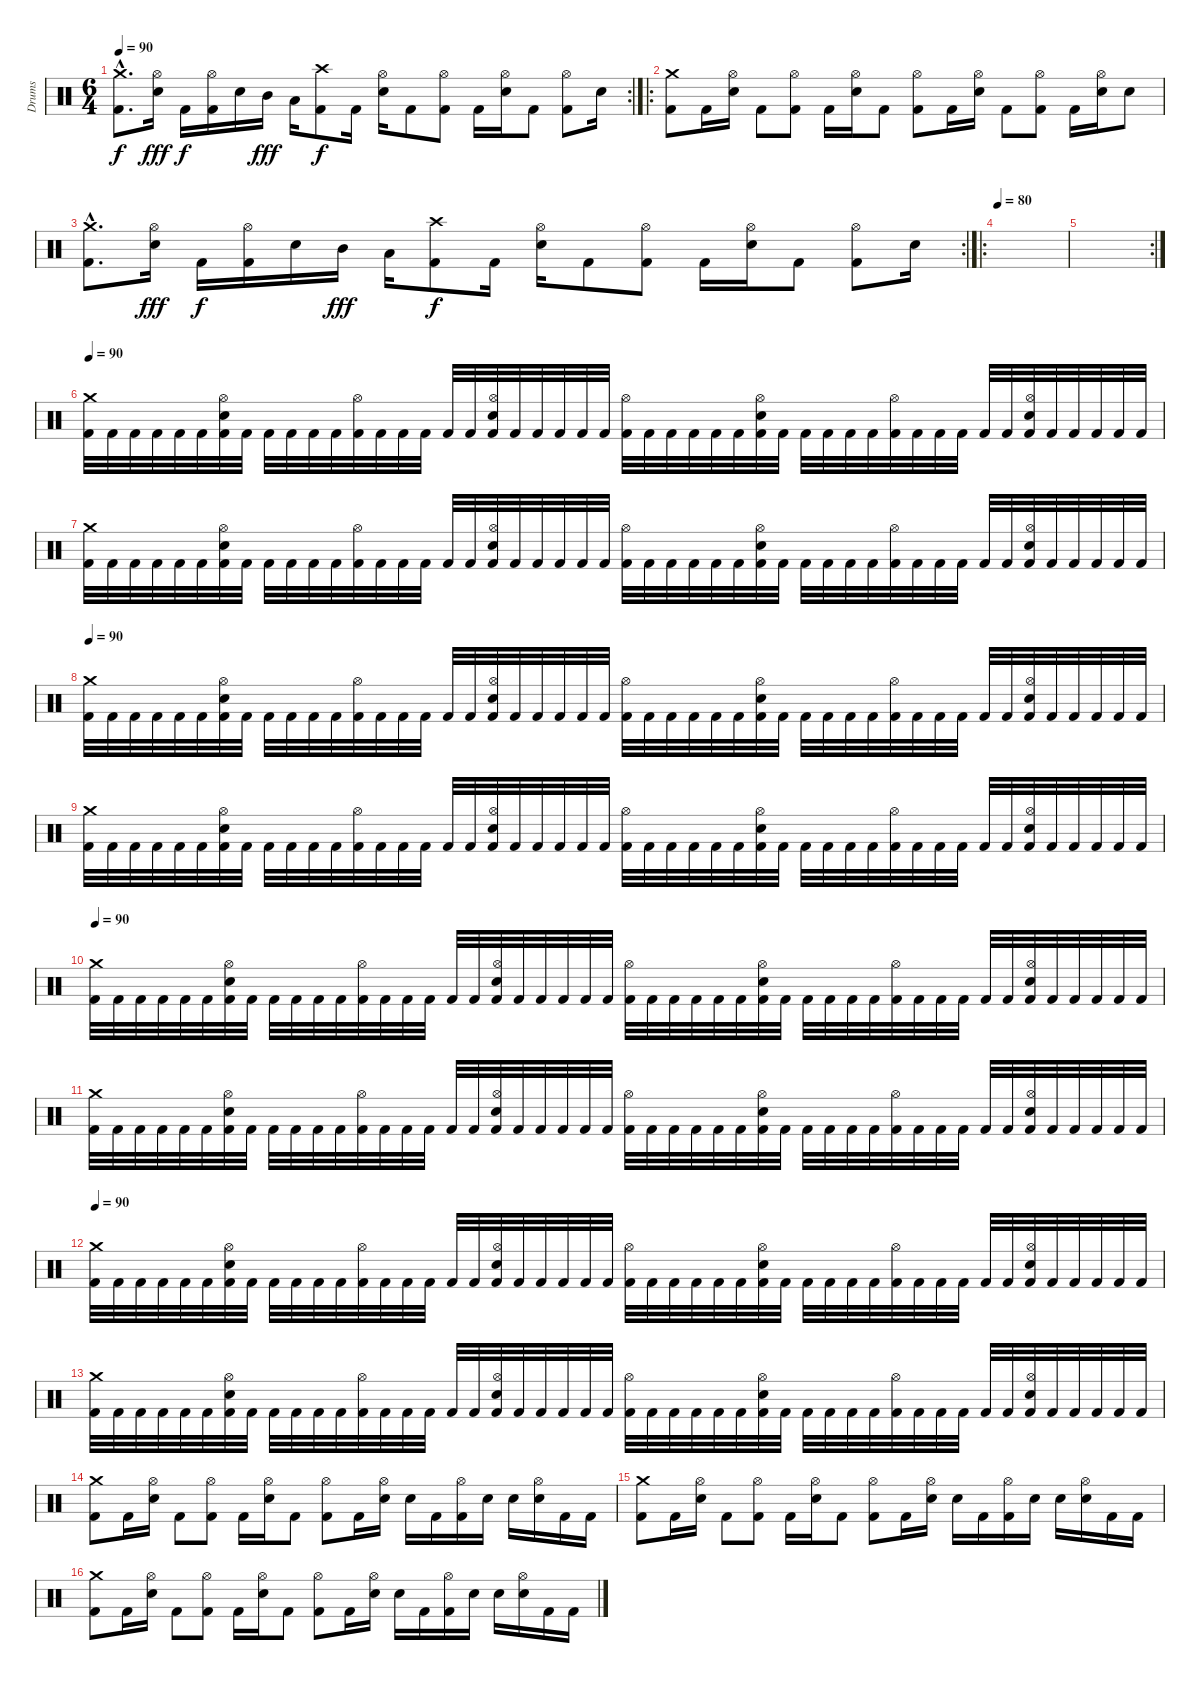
\track ("Drums" "Drums") {instrument percussion}
\staff {score}
\articulation defaults
\rc 2
\ts (6 4)
\tempo 90
\clef neutral
\ks c
("Crash medium (hit)"{hac} "Kick (hit) 2"{hac}).8{d dy f} ("Hi-Hat (open)" "Electric Snare (hit)").16{dy fff} "Kick (hit) 2".16{dy f} ("Hi-Hat (open)" "Kick (hit) 2").16 "Electric Snare (hit)".16 "Mid Tom (hit)".16{dy fff} "Low Tom (hit)".16 ("Crash high (hit)" "Kick (hit) 2").8{dy f} "Kick (hit) 2".16 ("Hi-Hat (open)" "Electric Snare (hit)").16 "Kick (hit) 2".8 ("Hi-Hat (open)" "Kick (hit) 2").8 "Kick (hit) 2".16 ("Hi-Hat (open)" "Electric Snare (hit)").16 "Kick (hit) 2".8 ("Hi-Hat (open)" "Kick (hit) 2").8 "Electric Snare (hit)".16 |
\ro
("Crash medium (hit)" "Kick (hit) 2").8 "Kick (hit) 2".16 ("Hi-Hat (open)" "Electric Snare (hit)").16 "Kick (hit) 2".8 ("Hi-Hat (open)" "Kick (hit) 2").8 "Kick (hit) 2".16 ("Hi-Hat (open)" "Electric Snare (hit)").16 "Kick (hit) 2".8 ("Hi-Hat (open)" "Kick (hit) 2").8 "Kick (hit) 2".16 ("Hi-Hat (open)" "Electric Snare (hit)").16 "Kick (hit) 2".8 ("Hi-Hat (open)" "Kick (hit) 2").8 "Kick (hit) 2".16 ("Hi-Hat (open)" "Electric Snare (hit)").16 "Electric Snare (hit)".8 |
\rc 2
("Crash medium (hit)"{hac} "Kick (hit) 2"{hac}).8{d} ("Hi-Hat (open)" "Electric Snare (hit)").16{dy fff} "Kick (hit) 2".16{dy f} ("Hi-Hat (open)" "Kick (hit) 2").16 "Electric Snare (hit)".16 "Mid Tom (hit)".16{dy fff} "Low Tom (hit)".16 ("Crash high (hit)" "Kick (hit) 2").8{dy f} "Kick (hit) 2".16 ("Hi-Hat (open)" "Electric Snare (hit)").16 "Kick (hit) 2".8 ("Hi-Hat (open)" "Kick (hit) 2").8 "Kick (hit) 2".16 ("Hi-Hat (open)" "Electric Snare (hit)").16 "Kick (hit) 2".8 ("Hi-Hat (open)" "Kick (hit) 2").8 "Electric Snare (hit)".16 |
\ro
\tempo 80
|
\rc 2
|
\tempo 90
("Crash medium (hit)" "Kick (hit) 2").32 "Kick (hit) 2".32 "Kick (hit) 2".32 "Kick (hit) 2".32 "Kick (hit) 2".32 "Kick (hit) 2".32 ("Hi-Hat (open)" "Electric Snare (hit)" "Kick (hit) 2").32 "Kick (hit) 2".32 "Kick (hit) 2".32 "Kick (hit) 2".32 "Kick (hit) 2".32 "Kick (hit) 2".32 ("Hi-Hat (open)" "Kick (hit) 2").32 "Kick (hit) 2".32 "Kick (hit) 2".32 "Kick (hit) 2".32 "Kick (hit) 2".32 "Kick (hit) 2".32 ("Hi-Hat (open)" "Electric Snare (hit)" "Kick (hit) 2").32 "Kick (hit) 2".32 "Kick (hit) 2".32 "Kick (hit) 2".32 "Kick (hit) 2".32 "Kick (hit) 2".32 ("Hi-Hat (open)" "Kick (hit) 2").32 "Kick (hit) 2".32 "Kick (hit) 2".32 "Kick (hit) 2".32 "Kick (hit) 2".32 "Kick (hit) 2".32 ("Hi-Hat (open)" "Electric Snare (hit)" "Kick (hit) 2").32 "Kick (hit) 2".32 "Kick (hit) 2".32 "Kick (hit) 2".32 "Kick (hit) 2".32 "Kick (hit) 2".32 ("Hi-Hat (open)" "Kick (hit) 2").32 "Kick (hit) 2".32 "Kick (hit) 2".32 "Kick (hit) 2".32 "Kick (hit) 2".32 "Kick (hit) 2".32 ("Hi-Hat (open)" "Electric Snare (hit)" "Kick (hit) 2").32 "Kick (hit) 2".32 "Kick (hit) 2".32 "Kick (hit) 2".32 "Kick (hit) 2".32 "Kick (hit) 2".32 |
("Crash medium (hit)" "Kick (hit) 2").32 "Kick (hit) 2".32 "Kick (hit) 2".32 "Kick (hit) 2".32 "Kick (hit) 2".32 "Kick (hit) 2".32 ("Hi-Hat (open)" "Electric Snare (hit)" "Kick (hit) 2").32 "Kick (hit) 2".32 "Kick (hit) 2".32 "Kick (hit) 2".32 "Kick (hit) 2".32 "Kick (hit) 2".32 ("Hi-Hat (open)" "Kick (hit) 2").32 "Kick (hit) 2".32 "Kick (hit) 2".32 "Kick (hit) 2".32 "Kick (hit) 2".32 "Kick (hit) 2".32 ("Hi-Hat (open)" "Electric Snare (hit)" "Kick (hit) 2").32 "Kick (hit) 2".32 "Kick (hit) 2".32 "Kick (hit) 2".32 "Kick (hit) 2".32 "Kick (hit) 2".32 ("Hi-Hat (open)" "Kick (hit) 2").32 "Kick (hit) 2".32 "Kick (hit) 2".32 "Kick (hit) 2".32 "Kick (hit) 2".32 "Kick (hit) 2".32 ("Hi-Hat (open)" "Electric Snare (hit)" "Kick (hit) 2").32 "Kick (hit) 2".32 "Kick (hit) 2".32 "Kick (hit) 2".32 "Kick (hit) 2".32 "Kick (hit) 2".32 ("Hi-Hat (open)" "Kick (hit) 2").32 "Kick (hit) 2".32 "Kick (hit) 2".32 "Kick (hit) 2".32 "Kick (hit) 2".32 "Kick (hit) 2".32 ("Hi-Hat (open)" "Electric Snare (hit)" "Kick (hit) 2").32 "Kick (hit) 2".32 "Kick (hit) 2".32 "Kick (hit) 2".32 "Kick (hit) 2".32 "Kick (hit) 2".32 |
\tempo 90
("Crash medium (hit)" "Kick (hit) 2").32 "Kick (hit) 2".32 "Kick (hit) 2".32 "Kick (hit) 2".32 "Kick (hit) 2".32 "Kick (hit) 2".32 ("Hi-Hat (open)" "Electric Snare (hit)" "Kick (hit) 2").32 "Kick (hit) 2".32 "Kick (hit) 2".32 "Kick (hit) 2".32 "Kick (hit) 2".32 "Kick (hit) 2".32 ("Hi-Hat (open)" "Kick (hit) 2").32 "Kick (hit) 2".32 "Kick (hit) 2".32 "Kick (hit) 2".32 "Kick (hit) 2".32 "Kick (hit) 2".32 ("Hi-Hat (open)" "Electric Snare (hit)" "Kick (hit) 2").32 "Kick (hit) 2".32 "Kick (hit) 2".32 "Kick (hit) 2".32 "Kick (hit) 2".32 "Kick (hit) 2".32 ("Hi-Hat (open)" "Kick (hit) 2").32 "Kick (hit) 2".32 "Kick (hit) 2".32 "Kick (hit) 2".32 "Kick (hit) 2".32 "Kick (hit) 2".32 ("Hi-Hat (open)" "Electric Snare (hit)" "Kick (hit) 2").32 "Kick (hit) 2".32 "Kick (hit) 2".32 "Kick (hit) 2".32 "Kick (hit) 2".32 "Kick (hit) 2".32 ("Hi-Hat (open)" "Kick (hit) 2").32 "Kick (hit) 2".32 "Kick (hit) 2".32 "Kick (hit) 2".32 "Kick (hit) 2".32 "Kick (hit) 2".32 ("Hi-Hat (open)" "Electric Snare (hit)" "Kick (hit) 2").32 "Kick (hit) 2".32 "Kick (hit) 2".32 "Kick (hit) 2".32 "Kick (hit) 2".32 "Kick (hit) 2".32 |
("Crash medium (hit)" "Kick (hit) 2").32 "Kick (hit) 2".32 "Kick (hit) 2".32 "Kick (hit) 2".32 "Kick (hit) 2".32 "Kick (hit) 2".32 ("Hi-Hat (open)" "Electric Snare (hit)" "Kick (hit) 2").32 "Kick (hit) 2".32 "Kick (hit) 2".32 "Kick (hit) 2".32 "Kick (hit) 2".32 "Kick (hit) 2".32 ("Hi-Hat (open)" "Kick (hit) 2").32 "Kick (hit) 2".32 "Kick (hit) 2".32 "Kick (hit) 2".32 "Kick (hit) 2".32 "Kick (hit) 2".32 ("Hi-Hat (open)" "Electric Snare (hit)" "Kick (hit) 2").32 "Kick (hit) 2".32 "Kick (hit) 2".32 "Kick (hit) 2".32 "Kick (hit) 2".32 "Kick (hit) 2".32 ("Hi-Hat (open)" "Kick (hit) 2").32 "Kick (hit) 2".32 "Kick (hit) 2".32 "Kick (hit) 2".32 "Kick (hit) 2".32 "Kick (hit) 2".32 ("Hi-Hat (open)" "Electric Snare (hit)" "Kick (hit) 2").32 "Kick (hit) 2".32 "Kick (hit) 2".32 "Kick (hit) 2".32 "Kick (hit) 2".32 "Kick (hit) 2".32 ("Hi-Hat (open)" "Kick (hit) 2").32 "Kick (hit) 2".32 "Kick (hit) 2".32 "Kick (hit) 2".32 "Kick (hit) 2".32 "Kick (hit) 2".32 ("Hi-Hat (open)" "Electric Snare (hit)" "Kick (hit) 2").32 "Kick (hit) 2".32 "Kick (hit) 2".32 "Kick (hit) 2".32 "Kick (hit) 2".32 "Kick (hit) 2".32 |
\tempo 90
("Crash medium (hit)" "Kick (hit) 2").32 "Kick (hit) 2".32 "Kick (hit) 2".32 "Kick (hit) 2".32 "Kick (hit) 2".32 "Kick (hit) 2".32 ("Hi-Hat (open)" "Electric Snare (hit)" "Kick (hit) 2").32 "Kick (hit) 2".32 "Kick (hit) 2".32 "Kick (hit) 2".32 "Kick (hit) 2".32 "Kick (hit) 2".32 ("Hi-Hat (open)" "Kick (hit) 2").32 "Kick (hit) 2".32 "Kick (hit) 2".32 "Kick (hit) 2".32 "Kick (hit) 2".32 "Kick (hit) 2".32 ("Hi-Hat (open)" "Electric Snare (hit)" "Kick (hit) 2").32 "Kick (hit) 2".32 "Kick (hit) 2".32 "Kick (hit) 2".32 "Kick (hit) 2".32 "Kick (hit) 2".32 ("Hi-Hat (open)" "Kick (hit) 2").32 "Kick (hit) 2".32 "Kick (hit) 2".32 "Kick (hit) 2".32 "Kick (hit) 2".32 "Kick (hit) 2".32 ("Hi-Hat (open)" "Electric Snare (hit)" "Kick (hit) 2").32 "Kick (hit) 2".32 "Kick (hit) 2".32 "Kick (hit) 2".32 "Kick (hit) 2".32 "Kick (hit) 2".32 ("Hi-Hat (open)" "Kick (hit) 2").32 "Kick (hit) 2".32 "Kick (hit) 2".32 "Kick (hit) 2".32 "Kick (hit) 2".32 "Kick (hit) 2".32 ("Hi-Hat (open)" "Electric Snare (hit)" "Kick (hit) 2").32 "Kick (hit) 2".32 "Kick (hit) 2".32 "Kick (hit) 2".32 "Kick (hit) 2".32 "Kick (hit) 2".32 |
("Crash medium (hit)" "Kick (hit) 2").32 "Kick (hit) 2".32 "Kick (hit) 2".32 "Kick (hit) 2".32 "Kick (hit) 2".32 "Kick (hit) 2".32 ("Hi-Hat (open)" "Electric Snare (hit)" "Kick (hit) 2").32 "Kick (hit) 2".32 "Kick (hit) 2".32 "Kick (hit) 2".32 "Kick (hit) 2".32 "Kick (hit) 2".32 ("Hi-Hat (open)" "Kick (hit) 2").32 "Kick (hit) 2".32 "Kick (hit) 2".32 "Kick (hit) 2".32 "Kick (hit) 2".32 "Kick (hit) 2".32 ("Hi-Hat (open)" "Electric Snare (hit)" "Kick (hit) 2").32 "Kick (hit) 2".32 "Kick (hit) 2".32 "Kick (hit) 2".32 "Kick (hit) 2".32 "Kick (hit) 2".32 ("Hi-Hat (open)" "Kick (hit) 2").32 "Kick (hit) 2".32 "Kick (hit) 2".32 "Kick (hit) 2".32 "Kick (hit) 2".32 "Kick (hit) 2".32 ("Hi-Hat (open)" "Electric Snare (hit)" "Kick (hit) 2").32 "Kick (hit) 2".32 "Kick (hit) 2".32 "Kick (hit) 2".32 "Kick (hit) 2".32 "Kick (hit) 2".32 ("Hi-Hat (open)" "Kick (hit) 2").32 "Kick (hit) 2".32 "Kick (hit) 2".32 "Kick (hit) 2".32 "Kick (hit) 2".32 "Kick (hit) 2".32 ("Hi-Hat (open)" "Electric Snare (hit)" "Kick (hit) 2").32 "Kick (hit) 2".32 "Kick (hit) 2".32 "Kick (hit) 2".32 "Kick (hit) 2".32 "Kick (hit) 2".32 |
\tempo 90
("Crash medium (hit)" "Kick (hit) 2").32 "Kick (hit) 2".32 "Kick (hit) 2".32 "Kick (hit) 2".32 "Kick (hit) 2".32 "Kick (hit) 2".32 ("Hi-Hat (open)" "Electric Snare (hit)" "Kick (hit) 2").32 "Kick (hit) 2".32 "Kick (hit) 2".32 "Kick (hit) 2".32 "Kick (hit) 2".32 "Kick (hit) 2".32 ("Hi-Hat (open)" "Kick (hit) 2").32 "Kick (hit) 2".32 "Kick (hit) 2".32 "Kick (hit) 2".32 "Kick (hit) 2".32 "Kick (hit) 2".32 ("Hi-Hat (open)" "Electric Snare (hit)" "Kick (hit) 2").32 "Kick (hit) 2".32 "Kick (hit) 2".32 "Kick (hit) 2".32 "Kick (hit) 2".32 "Kick (hit) 2".32 ("Hi-Hat (open)" "Kick (hit) 2").32 "Kick (hit) 2".32 "Kick (hit) 2".32 "Kick (hit) 2".32 "Kick (hit) 2".32 "Kick (hit) 2".32 ("Hi-Hat (open)" "Electric Snare (hit)" "Kick (hit) 2").32 "Kick (hit) 2".32 "Kick (hit) 2".32 "Kick (hit) 2".32 "Kick (hit) 2".32 "Kick (hit) 2".32 ("Hi-Hat (open)" "Kick (hit) 2").32 "Kick (hit) 2".32 "Kick (hit) 2".32 "Kick (hit) 2".32 "Kick (hit) 2".32 "Kick (hit) 2".32 ("Hi-Hat (open)" "Electric Snare (hit)" "Kick (hit) 2").32 "Kick (hit) 2".32 "Kick (hit) 2".32 "Kick (hit) 2".32 "Kick (hit) 2".32 "Kick (hit) 2".32 |
("Crash medium (hit)" "Kick (hit) 2").32 "Kick (hit) 2".32 "Kick (hit) 2".32 "Kick (hit) 2".32 "Kick (hit) 2".32 "Kick (hit) 2".32 ("Hi-Hat (open)" "Electric Snare (hit)" "Kick (hit) 2").32 "Kick (hit) 2".32 "Kick (hit) 2".32 "Kick (hit) 2".32 "Kick (hit) 2".32 "Kick (hit) 2".32 ("Hi-Hat (open)" "Kick (hit) 2").32 "Kick (hit) 2".32 "Kick (hit) 2".32 "Kick (hit) 2".32 "Kick (hit) 2".32 "Kick (hit) 2".32 ("Hi-Hat (open)" "Electric Snare (hit)" "Kick (hit) 2").32 "Kick (hit) 2".32 "Kick (hit) 2".32 "Kick (hit) 2".32 "Kick (hit) 2".32 "Kick (hit) 2".32 ("Hi-Hat (open)" "Kick (hit) 2").32 "Kick (hit) 2".32 "Kick (hit) 2".32 "Kick (hit) 2".32 "Kick (hit) 2".32 "Kick (hit) 2".32 ("Hi-Hat (open)" "Electric Snare (hit)" "Kick (hit) 2").32 "Kick (hit) 2".32 "Kick (hit) 2".32 "Kick (hit) 2".32 "Kick (hit) 2".32 "Kick (hit) 2".32 ("Hi-Hat (open)" "Kick (hit) 2").32 "Kick (hit) 2".32 "Kick (hit) 2".32 "Kick (hit) 2".32 "Kick (hit) 2".32 "Kick (hit) 2".32 ("Hi-Hat (open)" "Electric Snare (hit)" "Kick (hit) 2").32 "Kick (hit) 2".32 "Kick (hit) 2".32 "Kick (hit) 2".32 "Kick (hit) 2".32 "Kick (hit) 2".32 |
("Crash medium (hit)" "Kick (hit) 2").8 "Kick (hit) 2".16 ("Hi-Hat (open)" "Electric Snare (hit)").16 "Kick (hit) 2".8 ("Hi-Hat (open)" "Kick (hit) 2").8 "Kick (hit) 2".16 ("Hi-Hat (open)" "Electric Snare (hit)").16 "Kick (hit) 2".8 ("Hi-Hat (open)" "Kick (hit) 2").8 "Kick (hit) 2".16 ("Hi-Hat (open)" "Electric Snare (hit)").16 "Electric Snare (hit)".16 "Kick (hit) 2".16 ("Hi-Hat (open)" "Kick (hit) 2").16 "Electric Snare (hit)".16 "Electric Snare (hit)".16 ("Hi-Hat (open)" "Electric Snare (hit)").16 "Kick (hit) 2".16 "Kick (hit) 2".16 |
("Crash medium (hit)" "Kick (hit) 2").8 "Kick (hit) 2".16 ("Hi-Hat (open)" "Electric Snare (hit)").16 "Kick (hit) 2".8 ("Hi-Hat (open)" "Kick (hit) 2").8 "Kick (hit) 2".16 ("Hi-Hat (open)" "Electric Snare (hit)").16 "Kick (hit) 2".8 ("Hi-Hat (open)" "Kick (hit) 2").8 "Kick (hit) 2".16 ("Hi-Hat (open)" "Electric Snare (hit)").16 "Electric Snare (hit)".16 "Kick (hit) 2".16 ("Hi-Hat (open)" "Kick (hit) 2").16 "Electric Snare (hit)".16 "Electric Snare (hit)".16 ("Hi-Hat (open)" "Electric Snare (hit)").16 "Kick (hit) 2".16 "Kick (hit) 2".16 |
("Crash medium (hit)" "Kick (hit) 2").8 "Kick (hit) 2".16 ("Hi-Hat (open)" "Electric Snare (hit)").16 "Kick (hit) 2".8 ("Hi-Hat (open)" "Kick (hit) 2").8 "Kick (hit) 2".16 ("Hi-Hat (open)" "Electric Snare (hit)").16 "Kick (hit) 2".8 ("Hi-Hat (open)" "Kick (hit) 2").8 "Kick (hit) 2".16 ("Hi-Hat (open)" "Electric Snare (hit)").16 "Electric Snare (hit)".16 "Kick (hit) 2".16 ("Hi-Hat (open)" "Kick (hit) 2").16 "Electric Snare (hit)".16 "Electric Snare (hit)".16 ("Hi-Hat (open)" "Electric Snare (hit)").16 "Kick (hit) 2".16 "Kick (hit) 2".16
